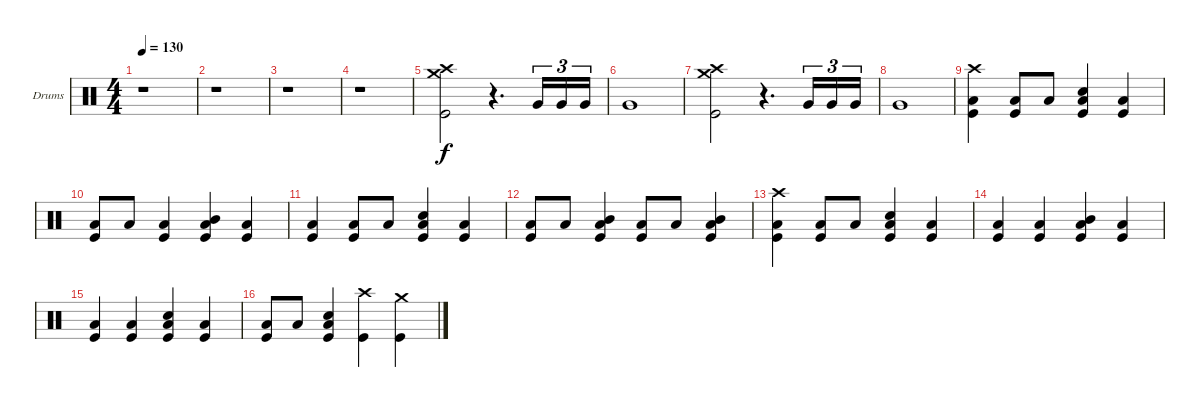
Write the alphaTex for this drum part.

\defaultSystemsLayout 4
\bracketExtendMode groupsimilarinstruments
\firstSystemTrackNameOrientation horizontal
\otherSystemsTrackNameOrientation horizontal
\track ("Drumkit" "Drums") {instrument percussion}
\staff {score}
\articulation defaults
\ts (4 4)
\tempo 130
\clef neutral
\scale
0.333333
\ks c
r.1{dy f} |
\scale
0.333333 r.1 |
\scale
0.333333 r.1 |
\scale
0.333333 r.1 |
\scale
0.333333 ("Crash medium (hit)" "Crash high (hit)" "Kick (hit)").2 r.4{d} "Very Low Tom (hit)".16{tu (3 2)} "Very Low Tom (hit)".16{tu (3 2)} "Very Low Tom (hit)".16{tu (3 2)} |
\scale
0.333333 "Very Low Tom (hit)".1 |
\scale
0.333333 ("Crash medium (hit)" "Crash high (hit)" "Kick (hit)").2 r.4{d} "Very Low Tom (hit)".16{tu (3 2)} "Very Low Tom (hit)".16{tu (3 2)} "Very Low Tom (hit)".16{tu (3 2)} |
\scale
0.333333 "Very Low Tom (hit)".1 |
\scale
0.333333 ("Crash high (hit)" "Low Tom (hit)" "Kick (hit)").4 ("Low Tom (hit)" "Kick (hit)").8 "Low Tom (hit)".8 ("Low Tom (hit)" "Snare (hit) 2" "Kick (hit)").4 ("Low Tom (hit)" "Kick (hit)").4 |
\scale
0.333333 ("Low Tom (hit)" "Kick (hit)").8 "Low Tom (hit)".8 ("Low Tom (hit)" "Kick (hit)").4 ("Mid Tom (hit)" "Low Tom (hit)" "Kick (hit)").4 ("Low Tom (hit)" "Kick (hit)").4 |
\scale
0.333333 ("Low Tom (hit)" "Kick (hit)").4 ("Low Tom (hit)" "Kick (hit)").8 "Low Tom (hit)".8 ("Low Tom (hit)" "Snare (hit) 2" "Kick (hit)").4 ("Low Tom (hit)" "Kick (hit)").4 |
\scale
0.333333 ("Low Tom (hit)" "Kick (hit)").8 "Low Tom (hit)".8 ("Mid Tom (hit)" "Low Tom (hit)" "Kick (hit)").4 ("Low Tom (hit)" "Kick (hit)").8 "Low Tom (hit)".8 ("Mid Tom (hit)" "Low Tom (hit)" "Kick (hit)").4 |
\scale
0.333333 ("Crash high (hit)" "Low Tom (hit)" "Kick (hit)").4 ("Low Tom (hit)" "Kick (hit)").8 "Low Tom (hit)".8 ("Low Tom (hit)" "Snare (hit) 2" "Kick (hit)").4 ("Low Tom (hit)" "Kick (hit)").4 |
\scale
0.333333 ("Low Tom (hit)" "Kick (hit)").4 ("Low Tom (hit)" "Kick (hit)").4 ("Mid Tom (hit)" "Low Tom (hit)" "Kick (hit)").4 ("Low Tom (hit)" "Kick (hit)").4 |
\scale
0.333333 ("Low Tom (hit)" "Kick (hit)").4 ("Low Tom (hit)" "Kick (hit)").4 ("Low Tom (hit)" "Snare (hit) 2" "Kick (hit)").4 ("Low Tom (hit)" "Kick (hit)").4 |
\scale
0.333333 ("Low Tom (hit)" "Kick (hit)").8 "Low Tom (hit)".8 ("Low Tom (hit)" "Snare (hit) 2" "Kick (hit)").4 ("Crash high (hit)" "Kick (hit)").4 ("Crash medium (hit)" "Kick (hit)").4
